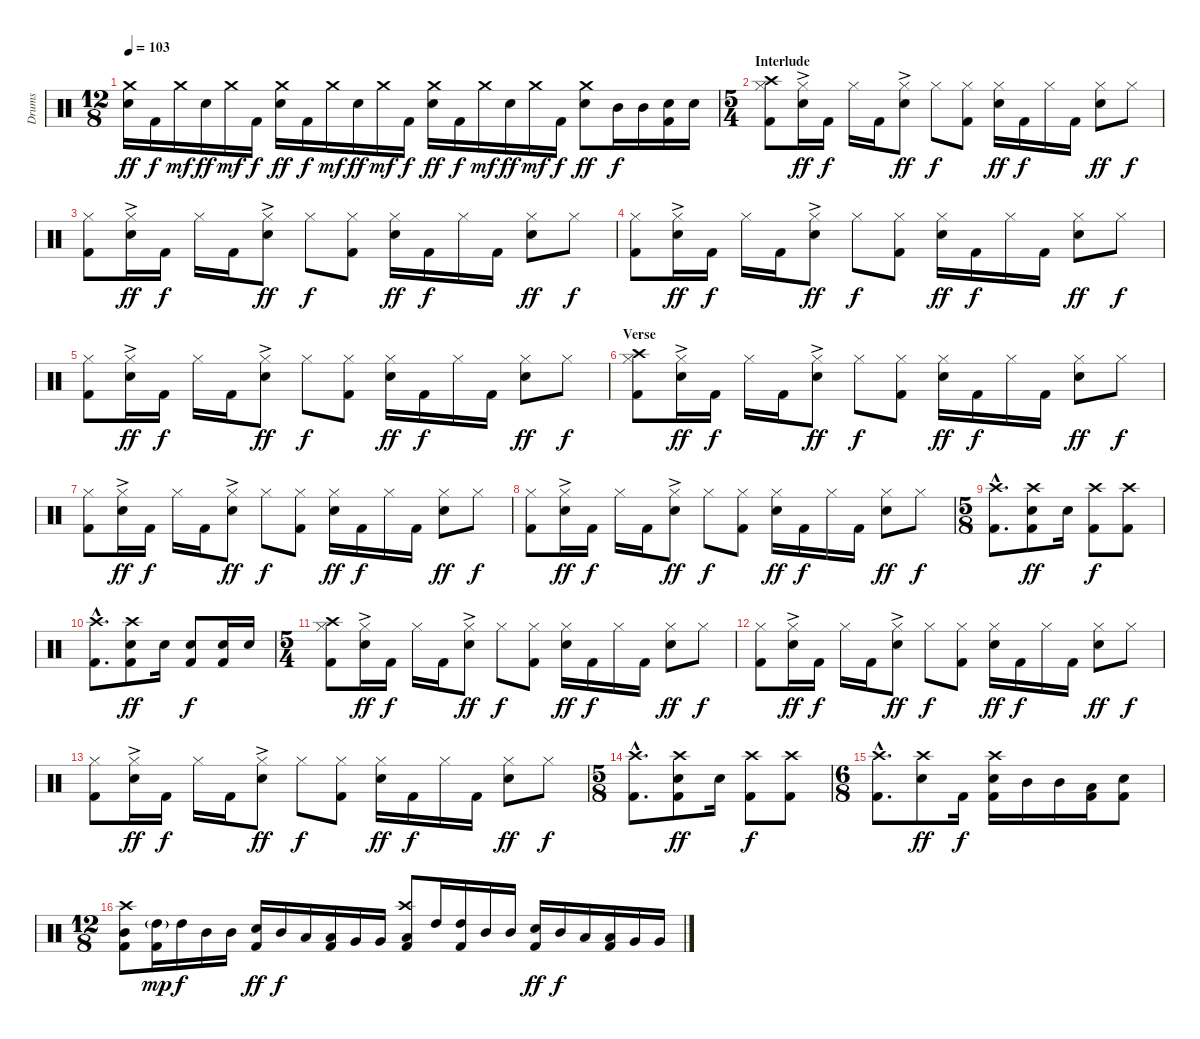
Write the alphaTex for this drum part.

\track ("Drums" "Drums") {instrument percussion}
\staff {score}
\articulation defaults
\ts (12 8)
\tempo 103
\clef neutral
\ks c
("Crash medium (hit)" "Electric Snare (hit)").16{dy ff} "Kick (hit) 2".16{dy f} "Crash medium (hit)".16{dy mf} "Electric Snare (hit)".16{dy ff} "Crash medium (hit)".16{dy mf} "Kick (hit) 2".16{dy f} ("Crash medium (hit)" "Electric Snare (hit)").16{dy ff} "Kick (hit) 2".16{dy f} "Crash medium (hit)".16{dy mf} "Electric Snare (hit)".16{dy ff} "Crash medium (hit)".16{dy mf} "Kick (hit) 2".16{dy f} ("Crash medium (hit)" "Electric Snare (hit)").16{dy ff} "Kick (hit) 2".16{dy f} "Crash medium (hit)".16{dy mf} "Electric Snare (hit)".16{dy ff} "Crash medium (hit)".16{dy mf} "Kick (hit) 2".16{dy f} ("Crash medium (hit)" "Electric Snare (hit)").8{dy ff} "Mid Tom (hit)".16{dy f} "Mid Tom (hit)".16 ("Electric Snare (hit)" "Kick (hit) 2").16 "Electric Snare (hit)".16 |
\ts (5 4)
\section ("" "Interlude")
("Crash high (hit)" "Hi-Hat (closed)" "Kick (hit) 2").8 ("Hi-Hat (closed)" "Electric Snare (hit)"{ac}).16{dy ff} "Kick (hit) 2".16{dy f} "Hi-Hat (closed)".16 "Kick (hit) 2".16 ("Hi-Hat (closed)" "Electric Snare (hit)"{ac}).8{dy ff} "Hi-Hat (closed)".8{dy f} ("Hi-Hat (closed)" "Kick (hit) 2").8 ("Hi-Hat (closed)" "Electric Snare (hit)").16{dy ff} "Kick (hit) 2".16{dy f} "Hi-Hat (closed)".16 "Kick (hit) 2".16 ("Hi-Hat (closed)" "Electric Snare (hit)").8{dy ff} "Hi-Hat (closed)".8{dy f} |
("Hi-Hat (closed)" "Kick (hit) 2").8 ("Hi-Hat (closed)" "Electric Snare (hit)"{ac}).16{dy ff} "Kick (hit) 2".16{dy f} "Hi-Hat (closed)".16 "Kick (hit) 2".16 ("Hi-Hat (closed)" "Electric Snare (hit)"{ac}).8{dy ff} "Hi-Hat (closed)".8{dy f} ("Hi-Hat (closed)" "Kick (hit) 2").8 ("Hi-Hat (closed)" "Electric Snare (hit)").16{dy ff} "Kick (hit) 2".16{dy f} "Hi-Hat (closed)".16 "Kick (hit) 2".16 ("Hi-Hat (closed)" "Electric Snare (hit)").8{dy ff} "Hi-Hat (closed)".8{dy f} |
("Hi-Hat (closed)" "Kick (hit) 2").8 ("Hi-Hat (closed)" "Electric Snare (hit)"{ac}).16{dy ff} "Kick (hit) 2".16{dy f} "Hi-Hat (closed)".16 "Kick (hit) 2".16 ("Hi-Hat (closed)" "Electric Snare (hit)"{ac}).8{dy ff} "Hi-Hat (closed)".8{dy f} ("Hi-Hat (closed)" "Kick (hit) 2").8 ("Hi-Hat (closed)" "Electric Snare (hit)").16{dy ff} "Kick (hit) 2".16{dy f} "Hi-Hat (closed)".16 "Kick (hit) 2".16 ("Hi-Hat (closed)" "Electric Snare (hit)").8{dy ff} "Hi-Hat (closed)".8{dy f} |
("Hi-Hat (closed)" "Kick (hit) 2").8 ("Hi-Hat (closed)" "Electric Snare (hit)"{ac}).16{dy ff} "Kick (hit) 2".16{dy f} "Hi-Hat (closed)".16 "Kick (hit) 2".16 ("Hi-Hat (closed)" "Electric Snare (hit)"{ac}).8{dy ff} "Hi-Hat (closed)".8{dy f} ("Hi-Hat (closed)" "Kick (hit) 2").8 ("Hi-Hat (closed)" "Electric Snare (hit)").16{dy ff} "Kick (hit) 2".16{dy f} "Hi-Hat (closed)".16 "Kick (hit) 2".16 ("Hi-Hat (closed)" "Electric Snare (hit)").8{dy ff} "Hi-Hat (closed)".8{dy f} |
\section ("" "Verse")
("Crash high (hit)" "Hi-Hat (closed)" "Kick (hit) 2").8 ("Hi-Hat (closed)" "Electric Snare (hit)"{ac}).16{dy ff} "Kick (hit) 2".16{dy f} "Hi-Hat (closed)".16 "Kick (hit) 2".16 ("Hi-Hat (closed)" "Electric Snare (hit)"{ac}).8{dy ff} "Hi-Hat (closed)".8{dy f} ("Hi-Hat (closed)" "Kick (hit) 2").8 ("Hi-Hat (closed)" "Electric Snare (hit)").16{dy ff} "Kick (hit) 2".16{dy f} "Hi-Hat (closed)".16 "Kick (hit) 2".16 ("Hi-Hat (closed)" "Electric Snare (hit)").8{dy ff} "Hi-Hat (closed)".8{dy f} |
("Hi-Hat (closed)" "Kick (hit) 2").8 ("Hi-Hat (closed)" "Electric Snare (hit)"{ac}).16{dy ff} "Kick (hit) 2".16{dy f} "Hi-Hat (closed)".16 "Kick (hit) 2".16 ("Hi-Hat (closed)" "Electric Snare (hit)"{ac}).8{dy ff} "Hi-Hat (closed)".8{dy f} ("Hi-Hat (closed)" "Kick (hit) 2").8 ("Hi-Hat (closed)" "Electric Snare (hit)").16{dy ff} "Kick (hit) 2".16{dy f} "Hi-Hat (closed)".16 "Kick (hit) 2".16 ("Hi-Hat (closed)" "Electric Snare (hit)").8{dy ff} "Hi-Hat (closed)".8{dy f} |
("Hi-Hat (closed)" "Kick (hit) 2").8 ("Hi-Hat (closed)" "Electric Snare (hit)"{ac}).16{dy ff} "Kick (hit) 2".16{dy f} "Hi-Hat (closed)".16 "Kick (hit) 2".16 ("Hi-Hat (closed)" "Electric Snare (hit)"{ac}).8{dy ff} "Hi-Hat (closed)".8{dy f} ("Hi-Hat (closed)" "Kick (hit) 2").8 ("Hi-Hat (closed)" "Electric Snare (hit)").16{dy ff} "Kick (hit) 2".16{dy f} "Hi-Hat (closed)".16 "Kick (hit) 2".16 ("Hi-Hat (closed)" "Electric Snare (hit)").8{dy ff} "Hi-Hat (closed)".8{dy f} |
\ts (5 8)
("Crash high (hit)"{hac} "Kick (hit) 2"{hac}).8{d} ("Crash high (hit)" "Electric Snare (hit)" "Kick (hit) 2").8{dy ff} "Electric Snare (hit)".16 ("Crash high (hit)" "Kick (hit) 2").8{dy f} ("Crash high (hit)" "Kick (hit) 2").8 |
("Crash high (hit)"{hac} "Kick (hit) 2"{hac}).8{d} ("Crash high (hit)" "Electric Snare (hit)" "Kick (hit) 2").8{dy ff} "Electric Snare (hit)".16 ("Electric Snare (hit)" "Kick (hit) 2").8{dy f} ("Electric Snare (hit)" "Kick (hit) 2").16 "Electric Snare (hit)".16 |
\ts (5 4)
("Crash high (hit)" "Hi-Hat (closed)" "Kick (hit) 2").8 ("Hi-Hat (closed)" "Electric Snare (hit)"{ac}).16{dy ff} "Kick (hit) 2".16{dy f} "Hi-Hat (closed)".16 "Kick (hit) 2".16 ("Hi-Hat (closed)" "Electric Snare (hit)"{ac}).8{dy ff} "Hi-Hat (closed)".8{dy f} ("Hi-Hat (closed)" "Kick (hit) 2").8 ("Hi-Hat (closed)" "Electric Snare (hit)").16{dy ff} "Kick (hit) 2".16{dy f} "Hi-Hat (closed)".16 "Kick (hit) 2".16 ("Hi-Hat (closed)" "Electric Snare (hit)").8{dy ff} "Hi-Hat (closed)".8{dy f} |
("Hi-Hat (closed)" "Kick (hit) 2").8 ("Hi-Hat (closed)" "Electric Snare (hit)"{ac}).16{dy ff} "Kick (hit) 2".16{dy f} "Hi-Hat (closed)".16 "Kick (hit) 2".16 ("Hi-Hat (closed)" "Electric Snare (hit)"{ac}).8{dy ff} "Hi-Hat (closed)".8{dy f} ("Hi-Hat (closed)" "Kick (hit) 2").8 ("Hi-Hat (closed)" "Electric Snare (hit)").16{dy ff} "Kick (hit) 2".16{dy f} "Hi-Hat (closed)".16 "Kick (hit) 2".16 ("Hi-Hat (closed)" "Electric Snare (hit)").8{dy ff} "Hi-Hat (closed)".8{dy f} |
("Hi-Hat (closed)" "Kick (hit) 2").8 ("Hi-Hat (closed)" "Electric Snare (hit)"{ac}).16{dy ff} "Kick (hit) 2".16{dy f} "Hi-Hat (closed)".16 "Kick (hit) 2".16 ("Hi-Hat (closed)" "Electric Snare (hit)"{ac}).8{dy ff} "Hi-Hat (closed)".8{dy f} ("Hi-Hat (closed)" "Kick (hit) 2").8 ("Hi-Hat (closed)" "Electric Snare (hit)").16{dy ff} "Kick (hit) 2".16{dy f} "Hi-Hat (closed)".16 "Kick (hit) 2".16 ("Hi-Hat (closed)" "Electric Snare (hit)").8{dy ff} "Hi-Hat (closed)".8{dy f} |
\ts (5 8)
("Crash high (hit)"{hac} "Kick (hit) 2"{hac}).8{d} ("Crash high (hit)" "Electric Snare (hit)" "Kick (hit) 2").8{dy ff} "Electric Snare (hit)".16 ("Crash high (hit)" "Kick (hit) 2").8{dy f} ("Crash high (hit)" "Kick (hit) 2").8 |
\ts (6 8)
("Crash high (hit)"{hac} "Kick (hit) 2"{hac}).8{d} ("Crash high (hit)" "Electric Snare (hit)").8{dy ff} "Kick (hit) 2".16{dy f} ("Crash high (hit)" "Electric Snare (hit)" "Kick (hit) 2").16 "Mid Tom (hit)".16 "Mid Tom (hit)".16 ("Low Tom (hit)" "Kick (hit) 2").16 ("Snare (hit)" "Kick (hit) 2").8 |
\ts (12 8)
("Crash high (hit)" "Mid Tom (hit)" "Kick (hit) 2").8 ("High Tom (hit)"{g} "Kick (hit) 2").16{dy mp} "High Tom (hit)".16{dy f} "Mid Tom (hit)".16 "Mid Tom (hit)".16 ("Electric Snare (hit)" "Kick (hit) 2").16{dy ff} "Mid Tom (hit)".16{dy f} "Low Tom (hit)".16 ("Low Tom (hit)" "Kick (hit) 2").16 "Very Low Tom (hit)".16 "Very Low Tom (hit)".16 ("Crash high (hit)" "Low Tom (hit)" "Kick (hit) 2").8 "High Tom (hit)".16 ("High Tom (hit)" "Kick (hit) 2").16 "Mid Tom (hit)".16 "Mid Tom (hit)".16 ("Electric Snare (hit)" "Kick (hit) 2").16{dy ff} "Mid Tom (hit)".16{dy f} "Low Tom (hit)".16 ("Low Tom (hit)" "Kick (hit) 2").16 "Very Low Tom (hit)".16 "Very Low Tom (hit)".16
